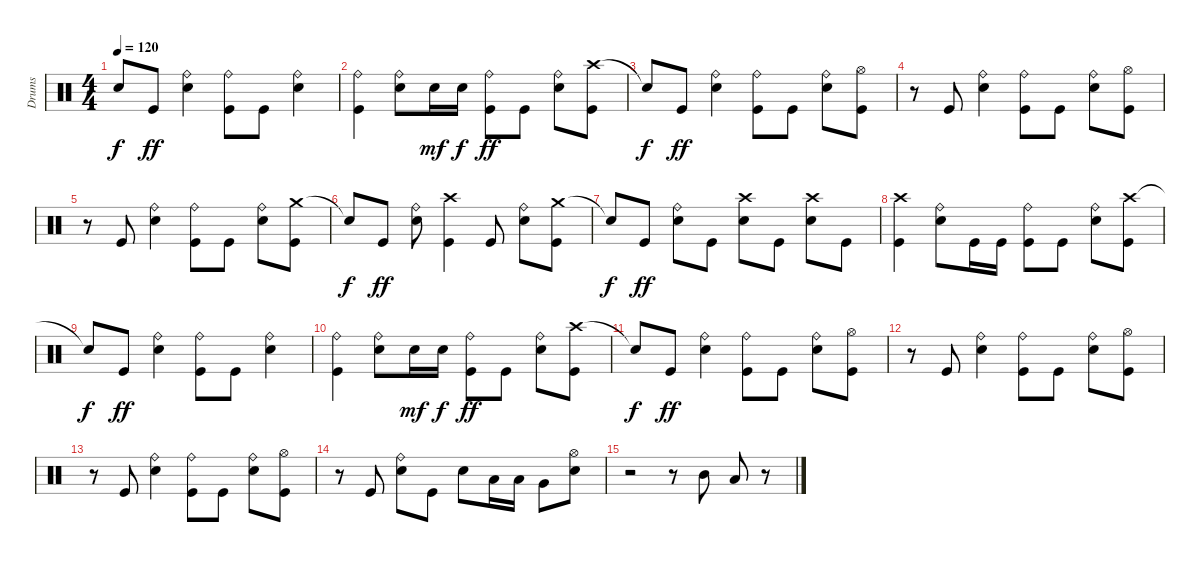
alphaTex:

\track ("Drums" "Drums") {instrument percussion}
\staff {score}
\articulation defaults
\ts (4 4)
\tempo 120
\clef neutral
\ks c "Snare (hit)"{t}.8{dy f} "Kick (hit)".8{dy ff}
("Ride (bell)" "Electric Snare (hit)").4 ("Ride (bell)" "Kick (hit)").8 "Kick (hit)".8 ("Ride (bell)" "Electric Snare (hit)").4 |
("Ride (bell)" "Kick (hit)").4 ("Ride (bell)" "Electric Snare (hit)").8 "Electric Snare (hit)".16{dy mf} "Electric Snare (hit)".16{dy f} ("Ride (bell)" "Kick (hit)").8{dy ff} "Kick (hit)".8 ("Ride (bell)" "Electric Snare (hit)").8 ("Crash high (hit)" "Kick (hit)").8 |
"Snare (hit)"{t}.8{dy f} "Kick (hit)".8{dy ff} ("Ride (bell)" "Electric Snare (hit)").4 ("Ride (bell)" "Kick (hit)").8 "Kick (hit)".8 ("Ride (bell)" "Electric Snare (hit)").8 ("Hi-Hat (open)" "Kick (hit)").8 |
r.8 "Kick (hit)".8 ("Ride (bell)" "Electric Snare (hit)").4 ("Ride (bell)" "Kick (hit)").8 "Kick (hit)".8 ("Ride (bell)" "Electric Snare (hit)").8 ("Hi-Hat (open)" "Kick (hit)").8 |
r.8 "Kick (hit)".8 ("Ride (bell)" "Electric Snare (hit)").4 ("Ride (bell)" "Kick (hit)").8 "Kick (hit)".8 ("Ride (bell)" "Electric Snare (hit)").8 ("Crash medium (hit)" "Kick (hit)").8 |
"Snare (hit)"{t}.8{dy f} "Kick (hit)".8{dy ff} ("Ride (bell)" "Electric Snare (hit)").8 ("Crash high (hit)" "Kick (hit)").4 "Kick (hit)".8 ("Ride (bell)" "Electric Snare (hit)").8 ("Crash medium (hit)" "Kick (hit)").8 |
"Snare (hit)"{t}.8{dy f} "Kick (hit)".8{dy ff} ("Ride (bell)" "Electric Snare (hit)").8 "Kick (hit)".8 ("Crash high (hit)" "Electric Snare (hit)").8 "Kick (hit)".8 ("Crash high (hit)" "Electric Snare (hit)").8 "Kick (hit)".8 |
("Crash high (hit)" "Kick (hit)").4 ("Ride (bell)" "Electric Snare (hit)").8 "Kick (hit)".16 "Kick (hit)".16 ("Ride (bell)" "Kick (hit)").8 "Kick (hit)".8 ("Ride (bell)" "Electric Snare (hit)").8 ("Crash high (hit)" "Kick (hit)").8 |
"Snare (hit)"{t}.8{dy f} "Kick (hit)".8{dy ff} ("Ride (bell)" "Electric Snare (hit)").4 ("Ride (bell)" "Kick (hit)").8 "Kick (hit)".8 ("Ride (bell)" "Electric Snare (hit)").4 |
("Ride (bell)" "Kick (hit)").4 ("Ride (bell)" "Electric Snare (hit)").8 "Electric Snare (hit)".16{dy mf} "Electric Snare (hit)".16{dy f} ("Ride (bell)" "Kick (hit)").8{dy ff} "Kick (hit)".8 ("Ride (bell)" "Electric Snare (hit)").8 ("Crash high (hit)" "Kick (hit)").8 |
"Snare (hit)"{t}.8{dy f} "Kick (hit)".8{dy ff} ("Ride (bell)" "Electric Snare (hit)").4 ("Ride (bell)" "Kick (hit)").8 "Kick (hit)".8 ("Ride (bell)" "Electric Snare (hit)").8 ("Hi-Hat (open)" "Kick (hit)").8 |
r.8 "Kick (hit)".8 ("Ride (bell)" "Electric Snare (hit)").4 ("Ride (bell)" "Kick (hit)").8 "Kick (hit)".8 ("Ride (bell)" "Electric Snare (hit)").8 ("Hi-Hat (open)" "Kick (hit)").8 |
r.8 "Kick (hit)".8 ("Ride (bell)" "Electric Snare (hit)").4 ("Ride (bell)" "Kick (hit)").8 "Kick (hit)".8 ("Ride (bell)" "Electric Snare (hit)").8 ("Hi-Hat (open)" "Kick (hit)").8 |
r.8 "Kick (hit)".8 ("Ride (bell)" "Electric Snare (hit)").8 "Kick (hit)".8 "Electric Snare (hit)".8 "Low Tom (hit)".16 "Low Tom (hit)".16 "Very Low Tom (hit)".8 ("Hi-Hat (open)" "Electric Snare (hit)").8 |
r.2 r.8 "Mid Tom (hit)".8 "Low Tom (hit)".8 r.8
